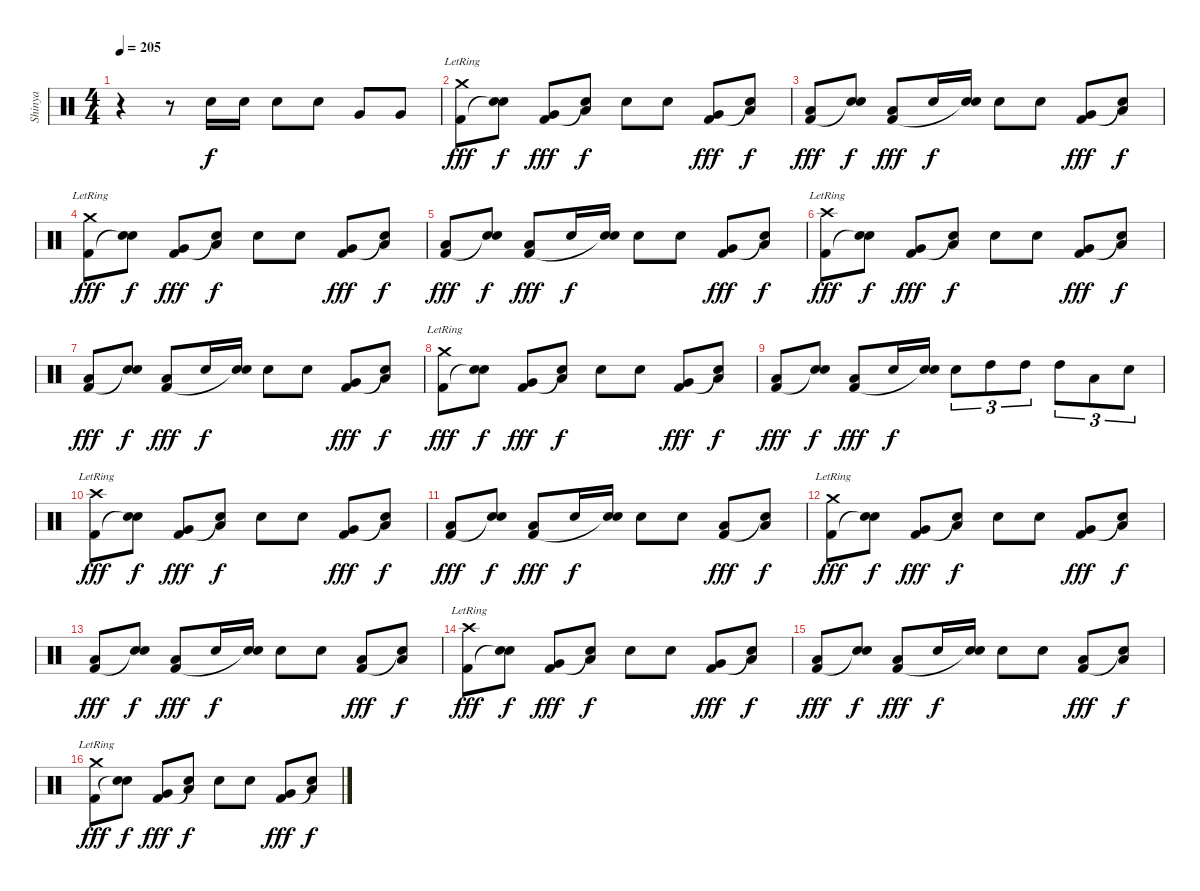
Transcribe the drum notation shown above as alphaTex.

\track ("Shinya" "Shinya") {instrument percussion}
\staff {score}
\articulation defaults
\ts (4 4)
\tempo 205
\clef neutral
\ks c
r.4{dy f} r.8 "Electric Snare (hit)".16 "Electric Snare (hit)".16 "Electric Snare (hit)".8 "Electric Snare (hit)".8 "Very Low Tom (hit)".8 "Very Low Tom (hit)".8 |
("Crash medium (hit)"{lr} "Kick (hit) 2").8{dy fff} ("Electric Snare (hit)" "Snare (hit)"{t}).8{dy f} ("Very Low Tom (hit)" "Kick (hit) 2").8{dy fff} ("Low Floor Tom (hit)" "Snare (hit)"{t}).8{dy f} "Electric Snare (hit)".8 "Electric Snare (hit)".8 ("Very Low Tom (hit)" "Kick (hit) 2").8{dy fff} ("Low Floor Tom (hit)" "Snare (hit)"{t}).8{dy f} |
("Low Floor Tom (hit)" "Kick (hit) 2").8{dy fff} ("Electric Snare (hit)" "Snare (hit)"{t}).8{dy f} ("Low Floor Tom (hit)" "Kick (hit) 2").8{dy fff} "Electric Snare (hit)".16{dy f} ("Electric Snare (hit)" "Snare (hit)"{t}).16 "Electric Snare (hit)".8 "Electric Snare (hit)".8 ("Very Low Tom (hit)" "Kick (hit) 2").8{dy fff} ("Low Floor Tom (hit)" "Snare (hit)"{t}).8{dy f} |
("Crash medium (hit)"{lr} "Kick (hit) 2").8{dy fff} ("Electric Snare (hit)" "Snare (hit)"{t}).8{dy f} ("Very Low Tom (hit)" "Kick (hit) 2").8{dy fff} ("Low Floor Tom (hit)" "Snare (hit)"{t}).8{dy f} "Electric Snare (hit)".8 "Electric Snare (hit)".8 ("Very Low Tom (hit)" "Kick (hit) 2").8{dy fff} ("Low Floor Tom (hit)" "Snare (hit)"{t}).8{dy f} |
("Low Floor Tom (hit)" "Kick (hit) 2").8{dy fff} ("Electric Snare (hit)" "Snare (hit)"{t}).8{dy f} ("Low Floor Tom (hit)" "Kick (hit) 2").8{dy fff} "Electric Snare (hit)".16{dy f} ("Electric Snare (hit)" "Snare (hit)"{t}).16 "Electric Snare (hit)".8 "Electric Snare (hit)".8 ("Very Low Tom (hit)" "Kick (hit) 2").8{dy fff} ("Low Floor Tom (hit)" "Snare (hit)"{t}).8{dy f} |
("Crash high (hit)"{lr} "Kick (hit) 2").8{dy fff} ("Electric Snare (hit)" "Snare (hit)"{t}).8{dy f} ("Very Low Tom (hit)" "Kick (hit) 2").8{dy fff} ("Low Floor Tom (hit)" "Snare (hit)"{t}).8{dy f} "Electric Snare (hit)".8 "Electric Snare (hit)".8 ("Very Low Tom (hit)" "Kick (hit) 2").8{dy fff} ("Low Floor Tom (hit)" "Snare (hit)"{t}).8{dy f} |
("Low Floor Tom (hit)" "Kick (hit) 2").8{dy fff} ("Electric Snare (hit)" "Snare (hit)"{t}).8{dy f} ("Low Floor Tom (hit)" "Kick (hit) 2").8{dy fff} "Electric Snare (hit)".16{dy f} ("Electric Snare (hit)" "Snare (hit)"{t}).16 "Electric Snare (hit)".8 "Electric Snare (hit)".8 ("Very Low Tom (hit)" "Kick (hit) 2").8{dy fff} ("Low Floor Tom (hit)" "Snare (hit)"{t}).8{dy f} |
("Crash medium (hit)"{lr} "Kick (hit) 2").8{dy fff} ("Electric Snare (hit)" "Snare (hit)"{t}).8{dy f} ("Very Low Tom (hit)" "Kick (hit) 2").8{dy fff} ("Low Floor Tom (hit)" "Snare (hit)"{t}).8{dy f} "Electric Snare (hit)".8 "Electric Snare (hit)".8 ("Very Low Tom (hit)" "Kick (hit) 2").8{dy fff} ("Low Floor Tom (hit)" "Snare (hit)"{t}).8{dy f} |
("Low Floor Tom (hit)" "Kick (hit) 2").8{dy fff} ("Electric Snare (hit)" "Snare (hit)"{t}).8{dy f} ("Low Floor Tom (hit)" "Kick (hit) 2").8{dy fff} "Electric Snare (hit)".16{dy f} ("Electric Snare (hit)" "Snare (hit)"{t}).16 "Electric Snare (hit)".8{tu (3 2)} "High Tom (hit)".8{tu (3 2)} "High Tom (hit)".8{tu (3 2)} "High Tom (hit)".8{tu (3 2)} "Low Tom (hit)".8{tu (3 2)} "Electric Snare (hit)".8{tu (3 2)} |
("Crash high (hit)"{lr} "Kick (hit) 2").8{dy fff} ("Electric Snare (hit)" "Snare (hit)"{t}).8{dy f} ("Very Low Tom (hit)" "Kick (hit) 2").8{dy fff} ("Low Floor Tom (hit)" "Snare (hit)"{t}).8{dy f} "Electric Snare (hit)".8 "Electric Snare (hit)".8 ("Very Low Tom (hit)" "Kick (hit) 2").8{dy fff} ("Low Floor Tom (hit)" "Snare (hit)"{t}).8{dy f} |
("Low Floor Tom (hit)" "Kick (hit) 2").8{dy fff} ("Electric Snare (hit)" "Snare (hit)"{t}).8{dy f} ("Low Floor Tom (hit)" "Kick (hit) 2").8{dy fff} "Electric Snare (hit)".16{dy f} ("Electric Snare (hit)" "Snare (hit)"{t}).16 "Electric Snare (hit)".8 "Electric Snare (hit)".8 ("Low Floor Tom (hit)" "Kick (hit) 2").8{dy fff} ("Low Floor Tom (hit)" "Snare (hit)"{t}).8{dy f} |
("Crash medium (hit)"{lr} "Kick (hit) 2").8{dy fff} ("Electric Snare (hit)" "Snare (hit)"{t}).8{dy f} ("Very Low Tom (hit)" "Kick (hit) 2").8{dy fff} ("Low Floor Tom (hit)" "Snare (hit)"{t}).8{dy f} "Electric Snare (hit)".8 "Electric Snare (hit)".8 ("Very Low Tom (hit)" "Kick (hit) 2").8{dy fff} ("Low Floor Tom (hit)" "Snare (hit)"{t}).8{dy f} |
("Low Floor Tom (hit)" "Kick (hit) 2").8{dy fff} ("Electric Snare (hit)" "Snare (hit)"{t}).8{dy f} ("Low Floor Tom (hit)" "Kick (hit) 2").8{dy fff} "Electric Snare (hit)".16{dy f} ("Electric Snare (hit)" "Snare (hit)"{t}).16 "Electric Snare (hit)".8 "Electric Snare (hit)".8 ("Low Floor Tom (hit)" "Kick (hit) 2").8{dy fff} ("Low Floor Tom (hit)" "Snare (hit)"{t}).8{dy f} |
("Crash high (hit)"{lr} "Kick (hit) 2").8{dy fff} ("Electric Snare (hit)" "Snare (hit)"{t}).8{dy f} ("Very Low Tom (hit)" "Kick (hit) 2").8{dy fff} ("Low Floor Tom (hit)" "Snare (hit)"{t}).8{dy f} "Electric Snare (hit)".8 "Electric Snare (hit)".8 ("Very Low Tom (hit)" "Kick (hit) 2").8{dy fff} ("Low Floor Tom (hit)" "Snare (hit)"{t}).8{dy f} |
("Low Floor Tom (hit)" "Kick (hit) 2").8{dy fff} ("Electric Snare (hit)" "Snare (hit)"{t}).8{dy f} ("Low Floor Tom (hit)" "Kick (hit) 2").8{dy fff} "Electric Snare (hit)".16{dy f} ("Electric Snare (hit)" "Snare (hit)"{t}).16 "Electric Snare (hit)".8 "Electric Snare (hit)".8 ("Low Floor Tom (hit)" "Kick (hit) 2").8{dy fff} ("Low Floor Tom (hit)" "Snare (hit)"{t}).8{dy f} |
("Crash medium (hit)"{lr} "Kick (hit) 2").8{dy fff} ("Electric Snare (hit)" "Snare (hit)"{t}).8{dy f} ("Very Low Tom (hit)" "Kick (hit) 2").8{dy fff} ("Low Floor Tom (hit)" "Snare (hit)"{t}).8{dy f} "Electric Snare (hit)".8 "Electric Snare (hit)".8 ("Very Low Tom (hit)" "Kick (hit) 2").8{dy fff} ("Low Floor Tom (hit)" "Snare (hit)"{t}).8{dy f}
